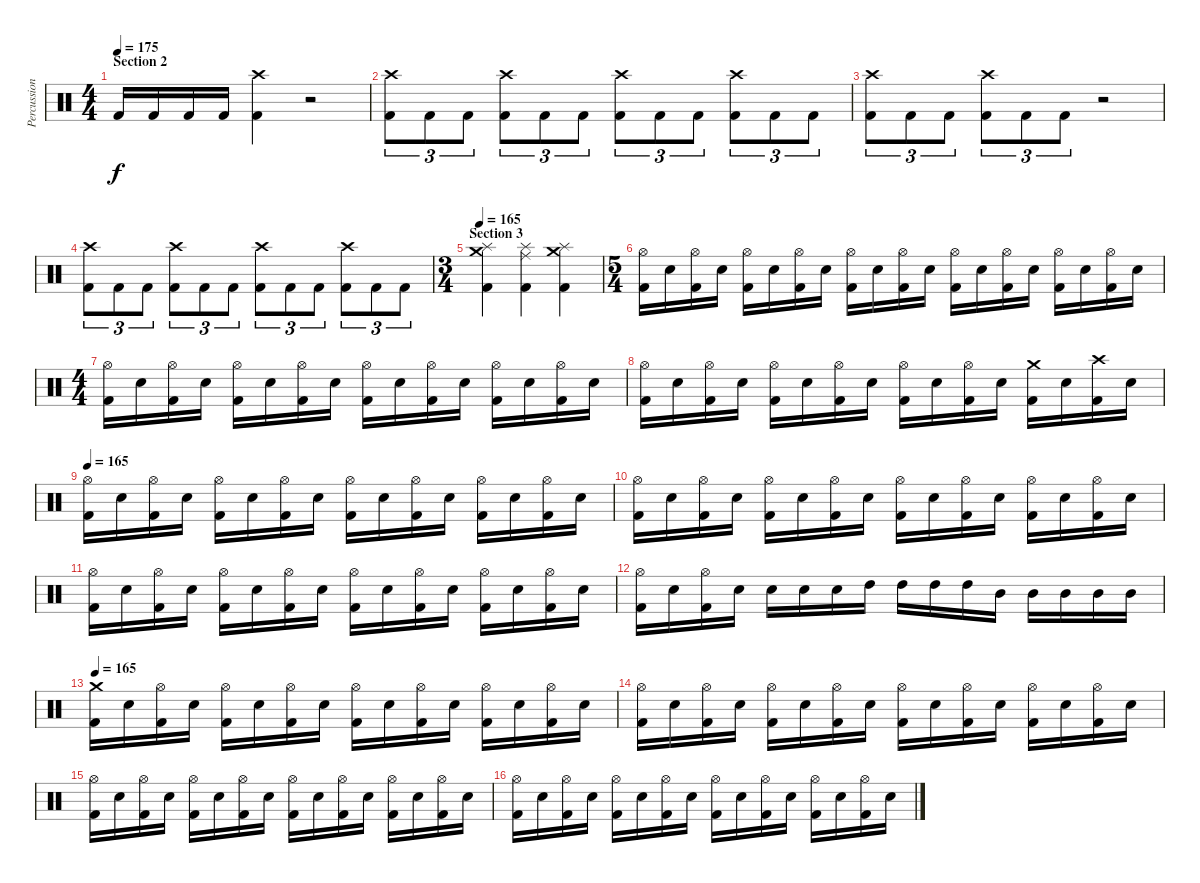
\track ("Percussion" "Percussion") {instrument percussion}
\staff {score}
\articulation defaults
\ts (4 4)
\section ("" "Section 2")
\tempo 175
\clef neutral
\ks c "Kick (hit) 2".16{dy f} "Kick (hit) 2".16 "Kick (hit) 2".16 "Kick (hit) 2".16
("Crash high (hit)" "Kick (hit) 2").4 r.2 |
("Crash high (hit)" "Kick (hit) 2").8{tu (3 2)} "Kick (hit) 2".8{tu (3 2)} "Kick (hit) 2".8{tu (3 2)} ("Crash high (hit)" "Kick (hit) 2").8{tu (3 2)} "Kick (hit) 2".8{tu (3 2)} "Kick (hit) 2".8{tu (3 2)} ("Crash high (hit)" "Kick (hit) 2").8{tu (3 2)} "Kick (hit) 2".8{tu (3 2)} "Kick (hit) 2".8{tu (3 2)} ("Crash high (hit)" "Kick (hit) 2").8{tu (3 2)} "Kick (hit) 2".8{tu (3 2)} "Kick (hit) 2".8{tu (3 2)} |
("Crash high (hit)" "Kick (hit) 2").8{tu (3 2)} "Kick (hit) 2".8{tu (3 2)} "Kick (hit) 2".8{tu (3 2)} ("Crash high (hit)" "Kick (hit) 2").8{tu (3 2)} "Kick (hit) 2".8{tu (3 2)} "Kick (hit) 2".8{tu (3 2)} r.2 |
("Crash high (hit)" "Kick (hit) 2").8{tu (3 2)} "Kick (hit) 2".8{tu (3 2)} "Kick (hit) 2".8{tu (3 2)} ("Crash high (hit)" "Kick (hit) 2").8{tu (3 2)} "Kick (hit) 2".8{tu (3 2)} "Kick (hit) 2".8{tu (3 2)} ("Crash high (hit)" "Kick (hit) 2").8{tu (3 2)} "Kick (hit) 2".8{tu (3 2)} "Kick (hit) 2".8{tu (3 2)} ("Crash high (hit)" "Kick (hit) 2").8{tu (3 2)} "Kick (hit) 2".8{tu (3 2)} "Kick (hit) 2".8{tu (3 2)} |
\ts (3 4)
\section ("" "Section 3")
\tempo 165
("Crash medium (hit)" "Splash (hit)" "Kick (hit) 2").4 ("Splash (hit)" "Ride (middle)" "Kick (hit) 2").4 ("Crash medium (hit)" "Splash (hit)" "Kick (hit) 2").4 |
\ts (5 4)
("Hi-Hat (open)" "Kick (hit) 2").16 "Electric Snare (hit)".16 ("Hi-Hat (open)" "Kick (hit) 2").16 "Electric Snare (hit)".16 ("Hi-Hat (open)" "Kick (hit) 2").16 "Electric Snare (hit)".16 ("Hi-Hat (open)" "Kick (hit) 2").16 "Electric Snare (hit)".16 ("Hi-Hat (open)" "Kick (hit) 2").16 "Electric Snare (hit)".16 ("Hi-Hat (open)" "Kick (hit) 2").16 "Electric Snare (hit)".16 ("Hi-Hat (open)" "Kick (hit) 2").16 "Electric Snare (hit)".16 ("Hi-Hat (open)" "Kick (hit) 2").16 "Electric Snare (hit)".16 ("Hi-Hat (open)" "Kick (hit) 2").16 "Electric Snare (hit)".16 ("Hi-Hat (open)" "Kick (hit) 2").16 "Electric Snare (hit)".16 |
\ts (4 4)
("Hi-Hat (open)" "Kick (hit) 2").16 "Electric Snare (hit)".16 ("Hi-Hat (open)" "Kick (hit) 2").16 "Electric Snare (hit)".16 ("Hi-Hat (open)" "Kick (hit) 2").16 "Electric Snare (hit)".16 ("Hi-Hat (open)" "Kick (hit) 2").16 "Electric Snare (hit)".16 ("Hi-Hat (open)" "Kick (hit) 2").16 "Electric Snare (hit)".16 ("Hi-Hat (open)" "Kick (hit) 2").16 "Electric Snare (hit)".16 ("Hi-Hat (open)" "Kick (hit) 2").16 "Electric Snare (hit)".16 ("Hi-Hat (open)" "Kick (hit) 2").16 "Electric Snare (hit)".16 |
("Hi-Hat (open)" "Kick (hit) 2").16 "Electric Snare (hit)".16 ("Hi-Hat (open)" "Kick (hit) 2").16 "Electric Snare (hit)".16 ("Hi-Hat (open)" "Kick (hit) 2").16 "Electric Snare (hit)".16 ("Hi-Hat (open)" "Kick (hit) 2").16 "Electric Snare (hit)".16 ("Hi-Hat (open)" "Kick (hit) 2").16 "Electric Snare (hit)".16 ("Hi-Hat (open)" "Kick (hit) 2").16 "Electric Snare (hit)".16 ("Crash medium (hit)" "Kick (hit) 2").16 "Electric Snare (hit)".16 ("Crash high (hit)" "Kick (hit) 2").16 "Electric Snare (hit)".16 |
\tempo 165
("Hi-Hat (open)" "Kick (hit) 2").16 "Electric Snare (hit)".16 ("Hi-Hat (open)" "Kick (hit) 2").16 "Electric Snare (hit)".16 ("Hi-Hat (open)" "Kick (hit) 2").16 "Electric Snare (hit)".16 ("Hi-Hat (open)" "Kick (hit) 2").16 "Electric Snare (hit)".16 ("Hi-Hat (open)" "Kick (hit) 2").16 "Electric Snare (hit)".16 ("Hi-Hat (open)" "Kick (hit) 2").16 "Electric Snare (hit)".16 ("Hi-Hat (open)" "Kick (hit) 2").16 "Electric Snare (hit)".16 ("Hi-Hat (open)" "Kick (hit) 2").16 "Electric Snare (hit)".16 |
("Hi-Hat (open)" "Kick (hit) 2").16 "Electric Snare (hit)".16 ("Hi-Hat (open)" "Kick (hit) 2").16 "Electric Snare (hit)".16 ("Hi-Hat (open)" "Kick (hit) 2").16 "Electric Snare (hit)".16 ("Hi-Hat (open)" "Kick (hit) 2").16 "Electric Snare (hit)".16 ("Hi-Hat (open)" "Kick (hit) 2").16 "Electric Snare (hit)".16 ("Hi-Hat (open)" "Kick (hit) 2").16 "Electric Snare (hit)".16 ("Hi-Hat (open)" "Kick (hit) 2").16 "Electric Snare (hit)".16 ("Hi-Hat (open)" "Kick (hit) 2").16 "Electric Snare (hit)".16 |
("Hi-Hat (open)" "Kick (hit) 2").16 "Electric Snare (hit)".16 ("Hi-Hat (open)" "Kick (hit) 2").16 "Electric Snare (hit)".16 ("Hi-Hat (open)" "Kick (hit) 2").16 "Electric Snare (hit)".16 ("Hi-Hat (open)" "Kick (hit) 2").16 "Electric Snare (hit)".16 ("Hi-Hat (open)" "Kick (hit) 2").16 "Electric Snare (hit)".16 ("Hi-Hat (open)" "Kick (hit) 2").16 "Electric Snare (hit)".16 ("Hi-Hat (open)" "Kick (hit) 2").16 "Electric Snare (hit)".16 ("Hi-Hat (open)" "Kick (hit) 2").16 "Electric Snare (hit)".16 |
("Hi-Hat (open)" "Kick (hit) 2").16 "Electric Snare (hit)".16 ("Hi-Hat (open)" "Kick (hit) 2").16 "Electric Snare (hit)".16 "Electric Snare (hit)".16 "Electric Snare (hit)".16 "Electric Snare (hit)".16 "High Tom (hit)".16 "High Tom (hit)".16 "High Tom (hit)".16 "High Tom (hit)".16 "Mid Tom (hit)".16 "Mid Tom (hit)".16 "Mid Tom (hit)".16 "Mid Tom (hit)".16 "Mid Tom (hit)".16 |
\tempo 165
("Crash medium (hit)" "Kick (hit) 2").16 "Electric Snare (hit)".16 ("Hi-Hat (open)" "Kick (hit) 2").16 "Electric Snare (hit)".16 ("Hi-Hat (open)" "Kick (hit) 2").16 "Electric Snare (hit)".16 ("Hi-Hat (open)" "Kick (hit) 2").16 "Electric Snare (hit)".16 ("Hi-Hat (open)" "Kick (hit) 2").16 "Electric Snare (hit)".16 ("Hi-Hat (open)" "Kick (hit) 2").16 "Electric Snare (hit)".16 ("Hi-Hat (open)" "Kick (hit) 2").16 "Electric Snare (hit)".16 ("Hi-Hat (open)" "Kick (hit) 2").16 "Electric Snare (hit)".16 |
("Hi-Hat (open)" "Kick (hit) 2").16 "Electric Snare (hit)".16 ("Hi-Hat (open)" "Kick (hit) 2").16 "Electric Snare (hit)".16 ("Hi-Hat (open)" "Kick (hit) 2").16 "Electric Snare (hit)".16 ("Hi-Hat (open)" "Kick (hit) 2").16 "Electric Snare (hit)".16 ("Hi-Hat (open)" "Kick (hit) 2").16 "Electric Snare (hit)".16 ("Hi-Hat (open)" "Kick (hit) 2").16 "Electric Snare (hit)".16 ("Hi-Hat (open)" "Kick (hit) 2").16 "Electric Snare (hit)".16 ("Hi-Hat (open)" "Kick (hit) 2").16 "Electric Snare (hit)".16 |
("Hi-Hat (open)" "Kick (hit) 2").16 "Electric Snare (hit)".16 ("Hi-Hat (open)" "Kick (hit) 2").16 "Electric Snare (hit)".16 ("Hi-Hat (open)" "Kick (hit) 2").16 "Electric Snare (hit)".16 ("Hi-Hat (open)" "Kick (hit) 2").16 "Electric Snare (hit)".16 ("Hi-Hat (open)" "Kick (hit) 2").16 "Electric Snare (hit)".16 ("Hi-Hat (open)" "Kick (hit) 2").16 "Electric Snare (hit)".16 ("Hi-Hat (open)" "Kick (hit) 2").16 "Electric Snare (hit)".16 ("Hi-Hat (open)" "Kick (hit) 2").16 "Electric Snare (hit)".16 |
("Hi-Hat (open)" "Kick (hit) 2").16 "Electric Snare (hit)".16 ("Hi-Hat (open)" "Kick (hit) 2").16 "Electric Snare (hit)".16 ("Hi-Hat (open)" "Kick (hit) 2").16 "Electric Snare (hit)".16 ("Hi-Hat (open)" "Kick (hit) 2").16 "Electric Snare (hit)".16 ("Hi-Hat (open)" "Kick (hit) 2").16 "Electric Snare (hit)".16 ("Hi-Hat (open)" "Kick (hit) 2").16 "Electric Snare (hit)".16 ("Hi-Hat (open)" "Kick (hit) 2").16 "Electric Snare (hit)".16 ("Hi-Hat (open)" "Kick (hit) 2").16 "Electric Snare (hit)".16
